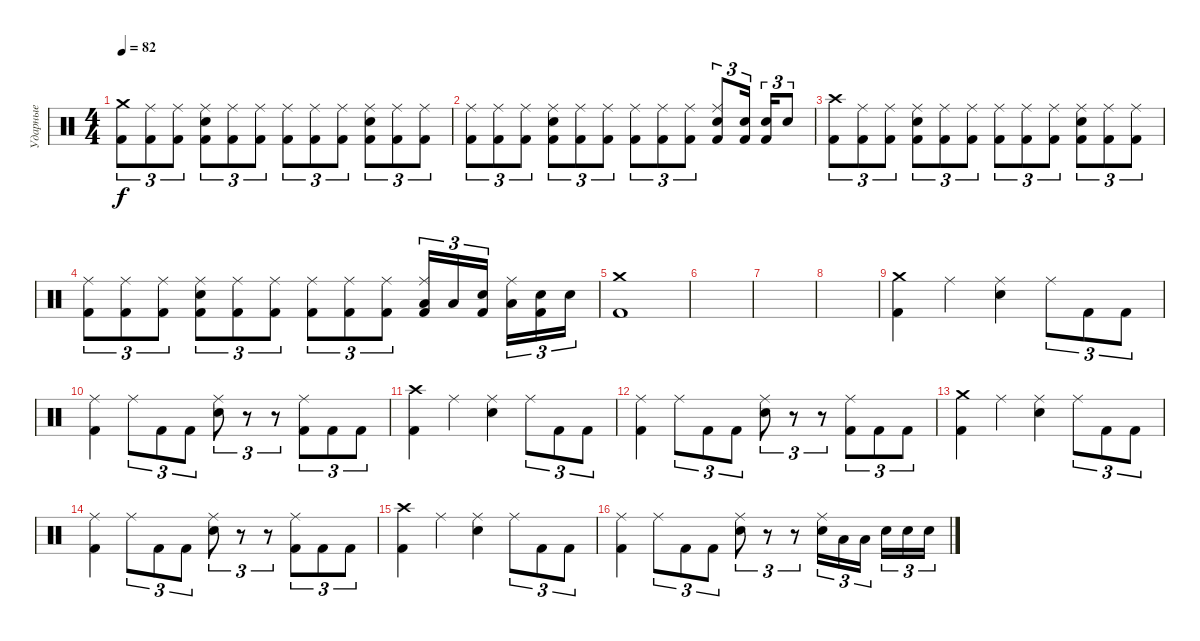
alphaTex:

\track ("Ударные" "Ударные") {instrument percussion}
\staff {score}
\articulation defaults
\ts (4 4)
\tempo 82
\clef neutral
\ks c
("Crash medium (hit)" "Kick (hit) 2").8{tu (3 2) dy f} ("Ride (middle)" "Kick (hit) 2").8{tu (3 2)} ("Ride (middle)" "Kick (hit) 2").8{tu (3 2)} ("Ride (middle)" "Electric Snare (hit)" "Kick (hit) 2").8{tu (3 2)} ("Ride (middle)" "Kick (hit) 2").8{tu (3 2)} ("Ride (middle)" "Kick (hit) 2").8{tu (3 2)} ("Ride (middle)" "Kick (hit) 2").8{tu (3 2)} ("Ride (middle)" "Kick (hit) 2").8{tu (3 2)} ("Ride (middle)" "Kick (hit) 2").8{tu (3 2)} ("Ride (middle)" "Electric Snare (hit)" "Kick (hit) 2").8{tu (3 2)} ("Ride (middle)" "Kick (hit) 2").8{tu (3 2)} ("Ride (middle)" "Kick (hit) 2").8{tu (3 2)} |
("Ride (middle)" "Kick (hit) 2").8{tu (3 2)} ("Ride (middle)" "Kick (hit) 2").8{tu (3 2)} ("Ride (middle)" "Kick (hit) 2").8{tu (3 2)} ("Ride (middle)" "Electric Snare (hit)" "Kick (hit) 2").8{tu (3 2)} ("Ride (middle)" "Kick (hit) 2").8{tu (3 2)} ("Ride (middle)" "Kick (hit) 2").8{tu (3 2)} ("Ride (middle)" "Kick (hit) 2").8{tu (3 2)} ("Ride (middle)" "Kick (hit) 2").8{tu (3 2)} ("Ride (middle)" "Kick (hit) 2").8{tu (3 2)} ("Ride (middle)" "Electric Snare (hit)" "Kick (hit) 2").8{tu (3 2)} ("Electric Snare (hit)" "Kick (hit) 2").16{tu (3 2)} ("Electric Snare (hit)" "Kick (hit) 2").16{tu (3 2)} "Electric Snare (hit)".8{tu (3 2)} |
("Crash high (hit)" "Kick (hit) 2").8{tu (3 2)} ("Ride (middle)" "Kick (hit) 2").8{tu (3 2)} ("Ride (middle)" "Kick (hit) 2").8{tu (3 2)} ("Ride (middle)" "Electric Snare (hit)" "Kick (hit) 2").8{tu (3 2)} ("Ride (middle)" "Kick (hit) 2").8{tu (3 2)} ("Ride (middle)" "Kick (hit) 2").8{tu (3 2)} ("Ride (middle)" "Kick (hit) 2").8{tu (3 2)} ("Ride (middle)" "Kick (hit) 2").8{tu (3 2)} ("Ride (middle)" "Kick (hit) 2").8{tu (3 2)} ("Ride (middle)" "Electric Snare (hit)" "Kick (hit) 2").8{tu (3 2)} ("Ride (middle)" "Kick (hit) 2").8{tu (3 2)} ("Ride (middle)" "Kick (hit) 2").8{tu (3 2)} |
("Ride (middle)" "Kick (hit) 2").8{tu (3 2)} ("Ride (middle)" "Kick (hit) 2").8{tu (3 2)} ("Ride (middle)" "Kick (hit) 2").8{tu (3 2)} ("Ride (middle)" "Electric Snare (hit)" "Kick (hit) 2").8{tu (3 2)} ("Ride (middle)" "Kick (hit) 2").8{tu (3 2)} ("Ride (middle)" "Kick (hit) 2").8{tu (3 2)} ("Ride (middle)" "Kick (hit) 2").8{tu (3 2)} ("Ride (middle)" "Kick (hit) 2").8{tu (3 2)} ("Ride (middle)" "Kick (hit) 2").8{tu (3 2)} ("Ride (middle)" "Low Tom (hit)" "Kick (hit) 2").16{tu (3 2)} "Low Tom (hit)".16{tu (3 2)} ("Electric Snare (hit)" "Kick (hit) 2").16{tu (3 2)} ("Ride (middle)" "Low Tom (hit)").16{tu (3 2)} ("Electric Snare (hit)" "Kick (hit) 2").16{tu (3 2)} "Electric Snare (hit)".16{tu (3 2)} |
("Crash medium (hit)" "Kick (hit) 2").1 |
|
|
|
("Crash medium (hit)" "Kick (hit) 2").4 "Ride (middle)".4 ("Ride (middle)" "Electric Snare (hit)").4 "Ride (middle)".8{tu (3 2)} "Kick (hit) 2".8{tu (3 2)} "Kick (hit) 2".8{tu (3 2)} |
("Ride (middle)" "Kick (hit) 2").4 "Ride (middle)".8{tu (3 2)} "Kick (hit) 2".8{tu (3 2)} "Kick (hit) 2".8{tu (3 2)} ("Ride (middle)" "Electric Snare (hit)").8{tu (3 2)} r.8{tu (3 2)} r.8{tu (3 2)} ("Ride (middle)" "Kick (hit) 2").8{tu (3 2)} "Kick (hit) 2".8{tu (3 2)} "Kick (hit) 2".8{tu (3 2)} |
("Crash high (hit)" "Kick (hit) 2").4 "Ride (middle)".4 ("Ride (middle)" "Electric Snare (hit)").4 "Ride (middle)".8{tu (3 2)} "Kick (hit) 2".8{tu (3 2)} "Kick (hit) 2".8{tu (3 2)} |
("Ride (middle)" "Kick (hit) 2").4 "Ride (middle)".8{tu (3 2)} "Kick (hit) 2".8{tu (3 2)} "Kick (hit) 2".8{tu (3 2)} ("Ride (middle)" "Electric Snare (hit)").8{tu (3 2)} r.8{tu (3 2)} r.8{tu (3 2)} ("Ride (middle)" "Kick (hit) 2").8{tu (3 2)} "Kick (hit) 2".8{tu (3 2)} "Kick (hit) 2".8{tu (3 2)} |
("Crash medium (hit)" "Kick (hit) 2").4 "Ride (middle)".4 ("Ride (middle)" "Electric Snare (hit)").4 "Ride (middle)".8{tu (3 2)} "Kick (hit) 2".8{tu (3 2)} "Kick (hit) 2".8{tu (3 2)} |
("Ride (middle)" "Kick (hit) 2").4 "Ride (middle)".8{tu (3 2)} "Kick (hit) 2".8{tu (3 2)} "Kick (hit) 2".8{tu (3 2)} ("Ride (middle)" "Electric Snare (hit)").8{tu (3 2)} r.8{tu (3 2)} r.8{tu (3 2)} ("Ride (middle)" "Kick (hit) 2").8{tu (3 2)} "Kick (hit) 2".8{tu (3 2)} "Kick (hit) 2".8{tu (3 2)} |
("Crash high (hit)" "Kick (hit) 2").4 "Ride (middle)".4 ("Ride (middle)" "Electric Snare (hit)").4 "Ride (middle)".8{tu (3 2)} "Kick (hit) 2".8{tu (3 2)} "Kick (hit) 2".8{tu (3 2)} |
("Ride (middle)" "Kick (hit) 2").4 "Ride (middle)".8{tu (3 2)} "Kick (hit) 2".8{tu (3 2)} "Kick (hit) 2".8{tu (3 2)} ("Ride (middle)" "Electric Snare (hit)").8{tu (3 2)} r.8{tu (3 2)} r.8{tu (3 2)} ("Ride (middle)" "Electric Snare (hit)").16{tu (3 2)} "Low Tom (hit)".16{tu (3 2)} "Low Tom (hit)".16{tu (3 2)} "Electric Snare (hit)".16{tu (3 2)} "Electric Snare (hit)".16{tu (3 2)} "Electric Snare (hit)".16{tu (3 2)}
